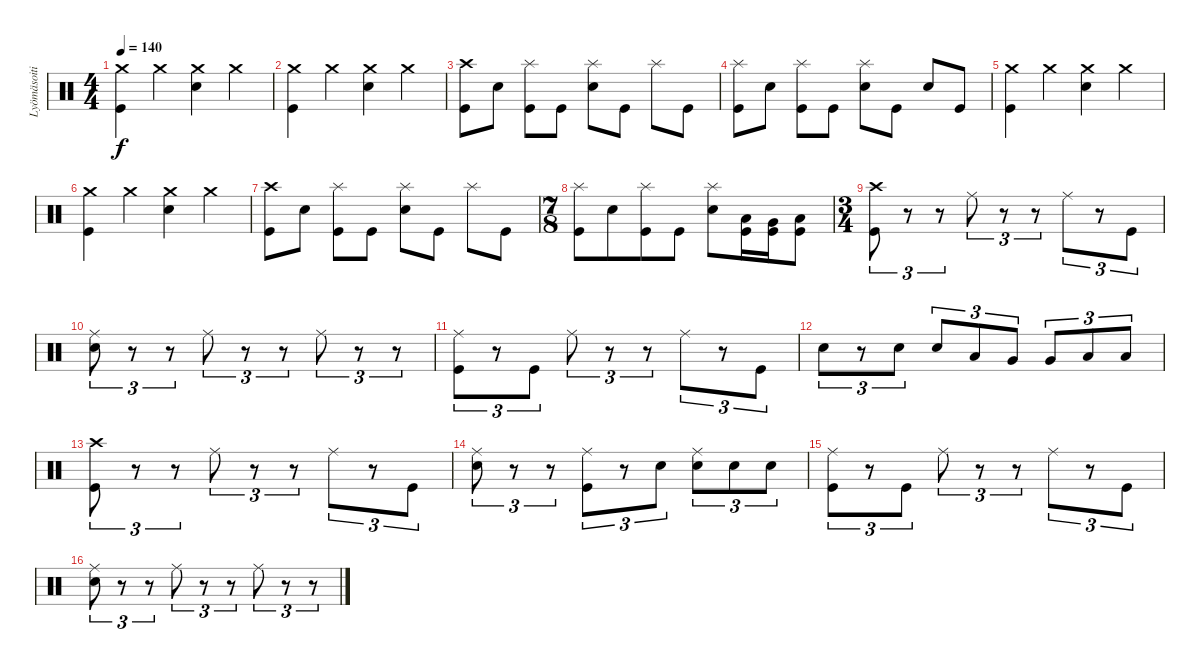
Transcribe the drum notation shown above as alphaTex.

\track ("Lyömäsoitin" "Lyömäsoiti") {instrument percussion}
\staff {score}
\articulation defaults
\ts (4 4)
\tempo 140
\clef neutral
\ks c
("Crash medium (hit)" "Kick (hit)").4{dy f} "Crash medium (hit)".4 ("Crash medium (hit)" "Electric Snare (hit)").4 "Crash medium (hit)".4 |
("Crash medium (hit)" "Kick (hit)").4 "Crash medium (hit)".4 ("Crash medium (hit)" "Electric Snare (hit)").4 "Crash medium (hit)".4 |
("Crash high (hit)" "Kick (hit)").8 "Electric Snare (hit)".8 ("Splash (hit)" "Kick (hit)").8 "Kick (hit)".8 ("Splash (hit)" "Electric Snare (hit)").8 "Kick (hit)".8 "Splash (hit)".8 "Kick (hit)".8 |
("Splash (hit)" "Kick (hit)").8 "Electric Snare (hit)".8 ("Splash (hit)" "Kick (hit)").8 "Kick (hit)".8 ("Splash (hit)" "Electric Snare (hit)").8 "Kick (hit)".8 "Electric Snare (hit)".8 "Kick (hit)".8 |
("Crash medium (hit)" "Kick (hit)").4 "Crash medium (hit)".4 ("Crash medium (hit)" "Electric Snare (hit)").4 "Crash medium (hit)".4 |
("Crash medium (hit)" "Kick (hit)").4 "Crash medium (hit)".4 ("Crash medium (hit)" "Electric Snare (hit)").4 "Crash medium (hit)".4 |
("Crash high (hit)" "Kick (hit)").8 "Electric Snare (hit)".8 ("Splash (hit)" "Kick (hit)").8 "Kick (hit)".8 ("Splash (hit)" "Electric Snare (hit)").8 "Kick (hit)".8 "Splash (hit)".8 "Kick (hit)".8 |
\ts (7 8)
("Splash (hit)" "Kick (hit)").8 "Electric Snare (hit)".8 ("Splash (hit)" "Kick (hit)").8 "Kick (hit)".8 ("Splash (hit)" "Electric Snare (hit)").8 ("Low Tom (hit)" "Kick (hit)").16 ("Very Low Tom (hit)" "Kick (hit)").16 ("Low Floor Tom (hit)" "Kick (hit)").8 |
\ts (3 4)
("Crash high (hit)" "Kick (hit)").8{tu (3 2)} r.8{tu (3 2)} r.8{tu (3 2)} "Ride (middle)".8{tu (3 2)} r.8{tu (3 2)} r.8{tu (3 2)} "Ride (middle)".8{tu (3 2)} r.8{tu (3 2)} "Kick (hit)".8{tu (3 2)} |
("Ride (middle)" "Electric Snare (hit)").8{tu (3 2)} r.8{tu (3 2)} r.8{tu (3 2)} "Ride (middle)".8{tu (3 2)} r.8{tu (3 2)} r.8{tu (3 2)} "Ride (middle)".8{tu (3 2)} r.8{tu (3 2)} r.8{tu (3 2)} |
("Ride (middle)" "Kick (hit)").8{tu (3 2)} r.8{tu (3 2)} "Kick (hit)".8{tu (3 2)} "Ride (middle)".8{tu (3 2)} r.8{tu (3 2)} r.8{tu (3 2)} "Ride (middle)".8{tu (3 2)} r.8{tu (3 2)} "Kick (hit)".8{tu (3 2)} |
"Electric Snare (hit)".8{tu (3 2)} r.8{tu (3 2)} "Electric Snare (hit)".8{tu (3 2)} "Electric Snare (hit)".8{tu (3 2)} "Low Tom (hit)".8{tu (3 2)} "Very Low Tom (hit)".8{tu (3 2)} "Very Low Tom (hit)".8{tu (3 2)} "Low Floor Tom (hit)".8{tu (3 2)} "Low Floor Tom (hit)".8{tu (3 2)} |
("Crash high (hit)" "Kick (hit)").8{tu (3 2)} r.8{tu (3 2)} r.8{tu (3 2)} "Ride (middle)".8{tu (3 2)} r.8{tu (3 2)} r.8{tu (3 2)} "Ride (middle)".8{tu (3 2)} r.8{tu (3 2)} "Kick (hit)".8{tu (3 2)} |
("Ride (middle)" "Electric Snare (hit)").8{tu (3 2)} r.8{tu (3 2)} r.8{tu (3 2)} ("Ride (middle)" "Kick (hit)").8{tu (3 2)} r.8{tu (3 2)} "Electric Snare (hit)".8{tu (3 2)} ("Ride (middle)" "Electric Snare (hit)").8{tu (3 2)} "Electric Snare (hit)".8{tu (3 2)} "Electric Snare (hit)".8{tu (3 2)} |
("Ride (middle)" "Kick (hit)").8{tu (3 2)} r.8{tu (3 2)} "Kick (hit)".8{tu (3 2)} "Ride (middle)".8{tu (3 2)} r.8{tu (3 2)} r.8{tu (3 2)} "Ride (middle)".8{tu (3 2)} r.8{tu (3 2)} "Kick (hit)".8{tu (3 2)} |
("Ride (middle)" "Electric Snare (hit)").8{tu (3 2)} r.8{tu (3 2)} r.8{tu (3 2)} "Ride (middle)".8{tu (3 2)} r.8{tu (3 2)} r.8{tu (3 2)} "Ride (middle)".8{tu (3 2)} r.8{tu (3 2)} r.8{tu (3 2)}
